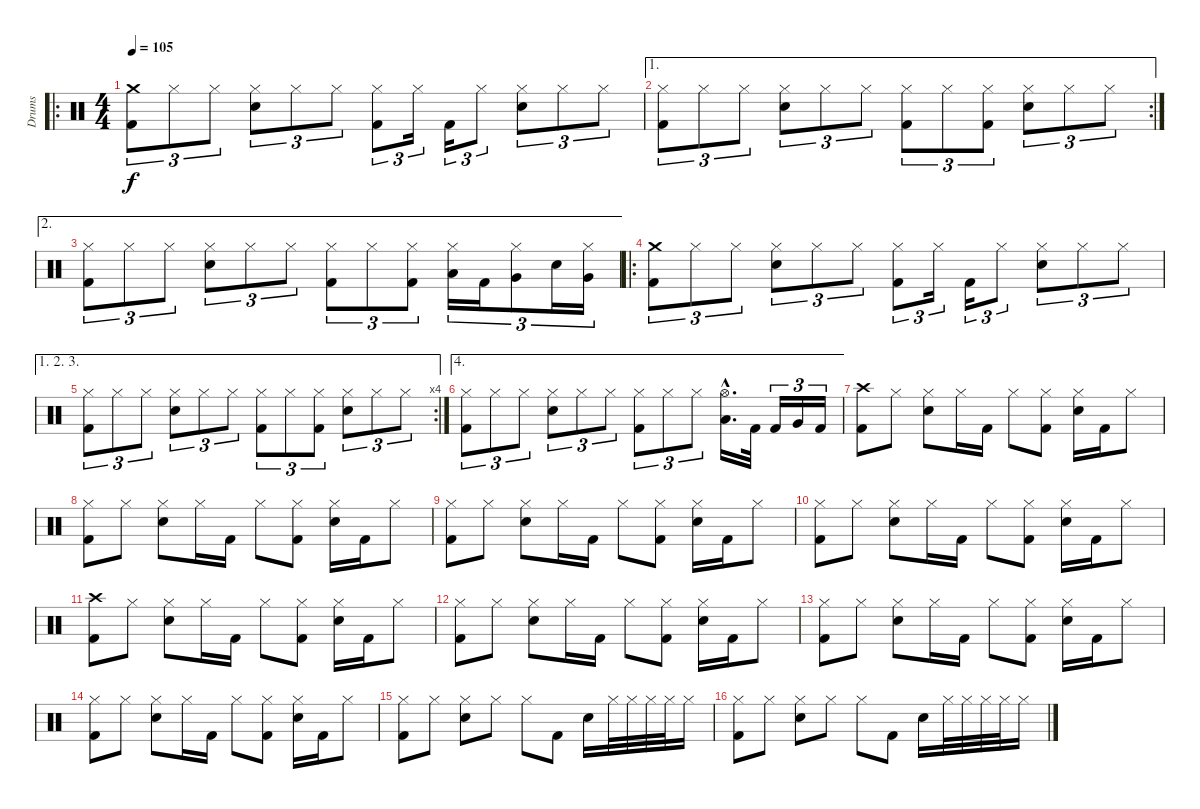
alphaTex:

\track ("Drums" "Drums") {instrument percussion}
\staff {score}
\articulation defaults
\ro
\ts (4 4)
\tempo 105
\clef neutral
\ks c
("Crash medium (hit)" "Kick (hit) 2").8{tu (3 2) dy f} "Hi-Hat (closed)".8{tu (3 2)} "Hi-Hat (closed)".8{tu (3 2)} ("Hi-Hat (closed)" "Electric Snare (hit)").8{tu (3 2)} "Hi-Hat (closed)".8{tu (3 2)} "Hi-Hat (closed)".8{tu (3 2)} ("Hi-Hat (closed)" "Kick (hit) 2").8{tu (3 2)} "Hi-Hat (closed)".16{tu (3 2)} "Kick (hit) 2".16{tu (3 2)} "Hi-Hat (closed)".8{tu (3 2)} ("Hi-Hat (closed)" "Electric Snare (hit)").8{tu (3 2)} "Hi-Hat (closed)".8{tu (3 2)} "Hi-Hat (closed)".8{tu (3 2)} |
\ae 1
\rc 2
("Hi-Hat (closed)" "Kick (hit) 2").8{tu (3 2)} "Hi-Hat (closed)".8{tu (3 2)} "Hi-Hat (closed)".8{tu (3 2)} ("Hi-Hat (closed)" "Electric Snare (hit)").8{tu (3 2)} "Hi-Hat (closed)".8{tu (3 2)} "Hi-Hat (closed)".8{tu (3 2)} ("Hi-Hat (closed)" "Kick (hit) 2").8{tu (3 2)} "Hi-Hat (closed)".8{tu (3 2)} ("Hi-Hat (closed)" "Kick (hit) 2").8{tu (3 2)} ("Hi-Hat (closed)" "Electric Snare (hit)").8{tu (3 2)} "Hi-Hat (closed)".8{tu (3 2)} "Hi-Hat (closed)".8{tu (3 2)} |
\ae 2
("Hi-Hat (closed)" "Kick (hit) 2").8{tu (3 2)} "Hi-Hat (closed)".8{tu (3 2)} "Hi-Hat (closed)".8{tu (3 2)} ("Hi-Hat (closed)" "Electric Snare (hit)").8{tu (3 2)} "Hi-Hat (closed)".8{tu (3 2)} "Hi-Hat (closed)".8{tu (3 2)} ("Hi-Hat (closed)" "Kick (hit) 2").8{tu (3 2)} "Hi-Hat (closed)".8{tu (3 2)} ("Hi-Hat (closed)" "Kick (hit) 2").8{tu (3 2)} ("Hi-Hat (closed)" "Low Tom (hit)").16{tu (3 2)} "Kick (hit) 2".16{tu (3 2)} ("Hi-Hat (closed)" "Very Low Tom (hit)").8{tu (3 2)} "Electric Snare (hit)".16{tu (3 2)} ("Hi-Hat (closed)" "Very Low Tom (hit)").16{tu (3 2)} |
\ro
("Crash medium (hit)" "Kick (hit) 2").8{tu (3 2)} "Hi-Hat (closed)".8{tu (3 2)} "Hi-Hat (closed)".8{tu (3 2)} ("Hi-Hat (closed)" "Electric Snare (hit)").8{tu (3 2)} "Hi-Hat (closed)".8{tu (3 2)} "Hi-Hat (closed)".8{tu (3 2)} ("Hi-Hat (closed)" "Kick (hit) 2").8{tu (3 2)} "Hi-Hat (closed)".16{tu (3 2)} "Kick (hit) 2".16{tu (3 2)} "Hi-Hat (closed)".8{tu (3 2)} ("Hi-Hat (closed)" "Electric Snare (hit)").8{tu (3 2)} "Hi-Hat (closed)".8{tu (3 2)} "Hi-Hat (closed)".8{tu (3 2)} |
\ae (1 2 3)
\rc 4
("Hi-Hat (closed)" "Kick (hit) 2").8{tu (3 2)} "Hi-Hat (closed)".8{tu (3 2)} "Hi-Hat (closed)".8{tu (3 2)} ("Hi-Hat (closed)" "Electric Snare (hit)").8{tu (3 2)} "Hi-Hat (closed)".8{tu (3 2)} "Hi-Hat (closed)".8{tu (3 2)} ("Hi-Hat (closed)" "Kick (hit) 2").8{tu (3 2)} "Hi-Hat (closed)".8{tu (3 2)} ("Hi-Hat (closed)" "Kick (hit) 2").8{tu (3 2)} ("Hi-Hat (closed)" "Electric Snare (hit)").8{tu (3 2)} "Hi-Hat (closed)".8{tu (3 2)} "Hi-Hat (closed)".8{tu (3 2)} |
\ae 4
("Hi-Hat (closed)" "Kick (hit) 2").8{tu (3 2)} "Hi-Hat (closed)".8{tu (3 2)} "Hi-Hat (closed)".8{tu (3 2)} ("Hi-Hat (closed)" "Electric Snare (hit)").8{tu (3 2)} "Hi-Hat (closed)".8{tu (3 2)} "Hi-Hat (closed)".8{tu (3 2)} ("Hi-Hat (closed)" "Kick (hit) 2").8{tu (3 2)} "Hi-Hat (closed)".8{tu (3 2)} "Hi-Hat (closed)".8{tu (3 2)} ("Hi-Hat (open)"{hac} "Low Tom (hit)"{hac}).16{d} "Kick (hit) 2".32 "Kick (hit) 2".16{tu (3 2)} "Very Low Tom (hit)".16{tu (3 2)} "Kick (hit) 2".16{tu (3 2)} |
("Crash high (hit)" "Kick (hit) 2").8 "Hi-Hat (closed)".8 ("Hi-Hat (closed)" "Electric Snare (hit)").8 "Hi-Hat (closed)".16 "Kick (hit) 2".16 "Hi-Hat (closed)".8 ("Hi-Hat (closed)" "Kick (hit) 2").8 ("Hi-Hat (closed)" "Electric Snare (hit)").16 "Kick (hit) 2".16 "Hi-Hat (closed)".8 |
("Hi-Hat (closed)" "Kick (hit) 2").8 "Hi-Hat (closed)".8 ("Hi-Hat (closed)" "Electric Snare (hit)").8 "Hi-Hat (closed)".16 "Kick (hit) 2".16 "Hi-Hat (closed)".8 ("Hi-Hat (closed)" "Kick (hit) 2").8 ("Hi-Hat (closed)" "Electric Snare (hit)").16 "Kick (hit) 2".16 "Hi-Hat (closed)".8 |
("Hi-Hat (closed)" "Kick (hit) 2").8 "Hi-Hat (closed)".8 ("Hi-Hat (closed)" "Electric Snare (hit)").8 "Hi-Hat (closed)".16 "Kick (hit) 2".16 "Hi-Hat (closed)".8 ("Hi-Hat (closed)" "Kick (hit) 2").8 ("Hi-Hat (closed)" "Electric Snare (hit)").16 "Kick (hit) 2".16 "Hi-Hat (closed)".8 |
("Hi-Hat (closed)" "Kick (hit) 2").8 "Hi-Hat (closed)".8 ("Hi-Hat (closed)" "Electric Snare (hit)").8 "Hi-Hat (closed)".16 "Kick (hit) 2".16 "Hi-Hat (closed)".8 ("Hi-Hat (closed)" "Kick (hit) 2").8 ("Hi-Hat (closed)" "Electric Snare (hit)").16 "Kick (hit) 2".16 "Hi-Hat (closed)".8 |
("Crash high (hit)" "Kick (hit) 2").8 "Hi-Hat (closed)".8 ("Hi-Hat (closed)" "Electric Snare (hit)").8 "Hi-Hat (closed)".16 "Kick (hit) 2".16 "Hi-Hat (closed)".8 ("Hi-Hat (closed)" "Kick (hit) 2").8 ("Hi-Hat (closed)" "Electric Snare (hit)").16 "Kick (hit) 2".16 "Hi-Hat (closed)".8 |
("Hi-Hat (closed)" "Kick (hit) 2").8 "Hi-Hat (closed)".8 ("Hi-Hat (closed)" "Electric Snare (hit)").8 "Hi-Hat (closed)".16 "Kick (hit) 2".16 "Hi-Hat (closed)".8 ("Hi-Hat (closed)" "Kick (hit) 2").8 ("Hi-Hat (closed)" "Electric Snare (hit)").16 "Kick (hit) 2".16 "Hi-Hat (closed)".8 |
("Hi-Hat (closed)" "Kick (hit) 2").8 "Hi-Hat (closed)".8 ("Hi-Hat (closed)" "Electric Snare (hit)").8 "Hi-Hat (closed)".16 "Kick (hit) 2".16 "Hi-Hat (closed)".8 ("Hi-Hat (closed)" "Kick (hit) 2").8 ("Hi-Hat (closed)" "Electric Snare (hit)").16 "Kick (hit) 2".16 "Hi-Hat (closed)".8 |
("Hi-Hat (closed)" "Kick (hit) 2").8 "Hi-Hat (closed)".8 ("Hi-Hat (closed)" "Electric Snare (hit)").8 "Hi-Hat (closed)".16 "Kick (hit) 2".16 "Hi-Hat (closed)".8 ("Hi-Hat (closed)" "Kick (hit) 2").8 ("Hi-Hat (closed)" "Electric Snare (hit)").16 "Kick (hit) 2".16 "Hi-Hat (closed)".8 |
("Hi-Hat (closed)" "Kick (hit) 2").8 "Hi-Hat (closed)".8 ("Hi-Hat (closed)" "Electric Snare (hit)").8 "Hi-Hat (closed)".8 "Hi-Hat (closed)".8 "Kick (hit) 2".8 "Electric Snare (hit)".16 "Hi-Hat (closed)".32 "Hi-Hat (closed)".32 "Hi-Hat (closed)".32 "Hi-Hat (closed)".32 "Hi-Hat (closed)".16 |
("Hi-Hat (closed)" "Kick (hit) 2").8 "Hi-Hat (closed)".8 ("Hi-Hat (closed)" "Electric Snare (hit)").8 "Hi-Hat (closed)".8 "Hi-Hat (closed)".8 "Kick (hit) 2".8 "Electric Snare (hit)".16 "Hi-Hat (closed)".32 "Hi-Hat (closed)".32 "Hi-Hat (closed)".32 "Hi-Hat (closed)".32 "Hi-Hat (closed)".16
